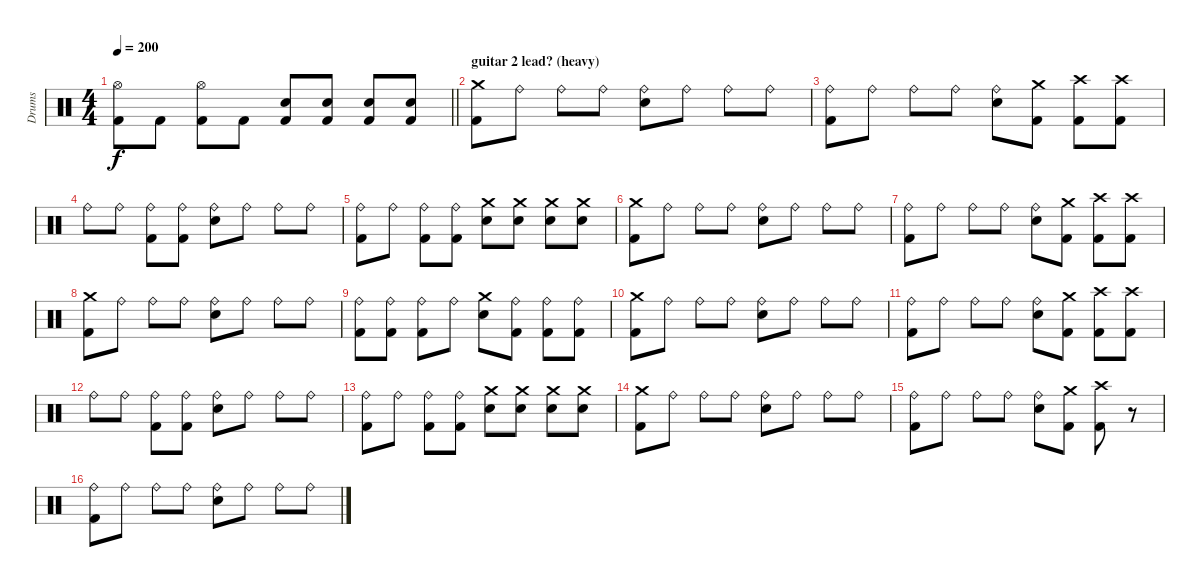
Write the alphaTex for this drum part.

\track ("Drums" "Drums") {instrument percussion}
\staff {score}
\articulation defaults
\ts (4 4)
\tempo 200
\clef neutral
\barLineRight lightlight
\ks c
("Hi-Hat (open)" "Kick (hit) 2").8{dy f} "Kick (hit) 2".8 ("Hi-Hat (open)" "Kick (hit) 2").8 "Kick (hit) 2".8 ("Snare (hit) 2" "Kick (hit) 2").8 ("Snare (hit) 2" "Kick (hit) 2").8 ("Snare (hit) 2" "Kick (hit) 2").8 ("Snare (hit) 2" "Kick (hit) 2").8 |
\section ("" "guitar 2 lead? (heavy)")
("Crash medium (hit)" "Kick (hit) 2").8 "Ride (bell)".8 "Ride (bell)".8 "Ride (bell)".8 ("Ride (bell)" "Snare (hit) 2").8 "Ride (bell)".8 "Ride (bell)".8 "Ride (bell)".8 |
("Ride (bell)" "Kick (hit) 2").8 "Ride (bell)".8 "Ride (bell)".8 "Ride (bell)".8 ("Ride (bell)" "Snare (hit) 2").8 ("Crash medium (hit)" "Kick (hit) 2").8 ("Crash high (hit)" "Kick (hit) 2").8 ("Crash high (hit)" "Kick (hit) 2").8 |
"Ride (bell)".8 "Ride (bell)".8 ("Ride (bell)" "Kick (hit) 2").8 ("Ride (bell)" "Kick (hit) 2").8 ("Ride (bell)" "Snare (hit) 2").8 "Ride (bell)".8 "Ride (bell)".8 "Ride (bell)".8 |
("Ride (bell)" "Kick (hit) 2").8 "Ride (bell)".8 ("Ride (bell)" "Kick (hit) 2").8 ("Ride (bell)" "Kick (hit) 2").8 ("Crash medium (hit)" "Snare (hit) 2").8 ("Crash medium (hit)" "Snare (hit) 2").8 ("Crash medium (hit)" "Snare (hit) 2").8 ("Crash medium (hit)" "Snare (hit) 2").8 |
("Crash medium (hit)" "Kick (hit) 2").8 "Ride (bell)".8 "Ride (bell)".8 "Ride (bell)".8 ("Ride (bell)" "Snare (hit) 2").8 "Ride (bell)".8 "Ride (bell)".8 "Ride (bell)".8 |
("Ride (bell)" "Kick (hit) 2").8 "Ride (bell)".8 "Ride (bell)".8 "Ride (bell)".8 ("Ride (bell)" "Snare (hit) 2").8 ("Crash medium (hit)" "Kick (hit) 2").8 ("Crash high (hit)" "Kick (hit) 2").8 ("Crash high (hit)" "Kick (hit) 2").8 |
("Crash medium (hit)" "Kick (hit) 2").8 "Ride (bell)".8 "Ride (bell)".8 "Ride (bell)".8 ("Ride (bell)" "Snare (hit) 2").8 "Ride (bell)".8 "Ride (bell)".8 "Ride (bell)".8 |
("Ride (bell)" "Kick (hit) 2").8 ("Ride (bell)" "Kick (hit) 2").8 ("Ride (bell)" "Kick (hit) 2").8 "Ride (bell)".8 ("Crash medium (hit)" "Snare (hit) 2").8 ("Ride (bell)" "Kick (hit) 2").8 ("Ride (bell)" "Kick (hit) 2").8 ("Ride (bell)" "Kick (hit) 2").8 |
("Crash medium (hit)" "Kick (hit) 2").8 "Ride (bell)".8 "Ride (bell)".8 "Ride (bell)".8 ("Ride (bell)" "Snare (hit) 2").8 "Ride (bell)".8 "Ride (bell)".8 "Ride (bell)".8 |
("Ride (bell)" "Kick (hit) 2").8 "Ride (bell)".8 "Ride (bell)".8 "Ride (bell)".8 ("Ride (bell)" "Snare (hit) 2").8 ("Crash medium (hit)" "Kick (hit) 2").8 ("Crash high (hit)" "Kick (hit) 2").8 ("Crash high (hit)" "Kick (hit) 2").8 |
"Ride (bell)".8 "Ride (bell)".8 ("Ride (bell)" "Kick (hit) 2").8 ("Ride (bell)" "Kick (hit) 2").8 ("Ride (bell)" "Snare (hit) 2").8 "Ride (bell)".8 "Ride (bell)".8 "Ride (bell)".8 |
("Ride (bell)" "Kick (hit) 2").8 "Ride (bell)".8 ("Ride (bell)" "Kick (hit) 2").8 ("Ride (bell)" "Kick (hit) 2").8 ("Crash medium (hit)" "Snare (hit) 2").8 ("Crash medium (hit)" "Snare (hit) 2").8 ("Crash medium (hit)" "Snare (hit) 2").8 ("Crash medium (hit)" "Snare (hit) 2").8 |
("Crash medium (hit)" "Kick (hit) 2").8 "Ride (bell)".8 "Ride (bell)".8 "Ride (bell)".8 ("Ride (bell)" "Snare (hit) 2").8 "Ride (bell)".8 "Ride (bell)".8 "Ride (bell)".8 |
("Ride (bell)" "Kick (hit) 2").8 "Ride (bell)".8 "Ride (bell)".8 "Ride (bell)".8 ("Ride (bell)" "Snare (hit) 2").8 ("Crash medium (hit)" "Kick (hit) 2").8 ("Crash high (hit)" "Kick (hit) 2").8 r.8 |
("Ride (bell)" "Kick (hit) 2").8 "Ride (bell)".8 "Ride (bell)".8 "Ride (bell)".8 ("Ride (bell)" "Snare (hit) 2").8 "Ride (bell)".8 "Ride (bell)".8 "Ride (bell)".8
